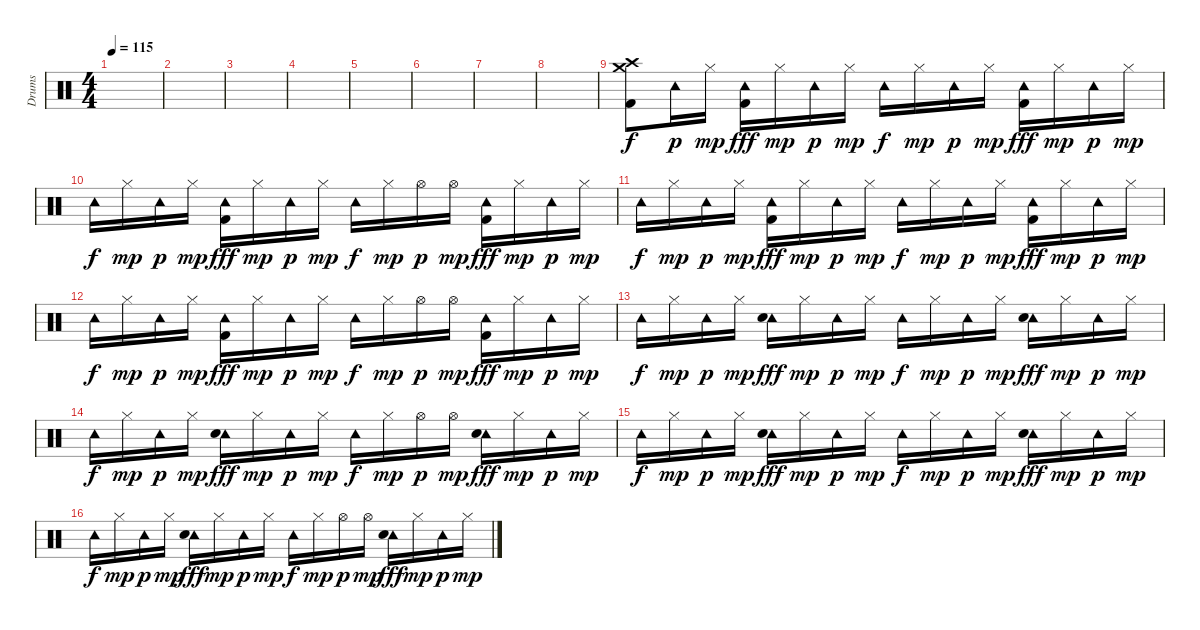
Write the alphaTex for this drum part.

\track ("Drums" "Drums") {instrument percussion}
\staff {score}
\articulation defaults
\ts (4 4)
\tempo 115
\clef neutral
\ks c
|
|
|
|
|
|
|
|
("Crash high (hit)" "Crash medium (hit)" "Kick (hit) 2").8 "Tambourine (hit)".16{dy p} "Hi-Hat (closed)".16{dy mp} ("Tambourine (hit)" "Kick (hit) 2").16{dy fff} "Hi-Hat (closed)".16{dy mp} "Tambourine (hit)".16{dy p} "Hi-Hat (closed)".16{dy mp} "Tambourine (hit)".16{dy f} "Hi-Hat (closed)".16{dy mp} "Tambourine (hit)".16{dy p} "Hi-Hat (closed)".16{dy mp} ("Tambourine (hit)" "Kick (hit) 2").16{dy fff} "Hi-Hat (closed)".16{dy mp} "Tambourine (hit)".16{dy p} "Hi-Hat (closed)".16{dy mp} |
"Tambourine (hit)".16{dy f} "Hi-Hat (closed)".16{dy mp} "Tambourine (hit)".16{dy p} "Hi-Hat (closed)".16{dy mp} ("Tambourine (hit)" "Kick (hit) 2").16{dy fff} "Hi-Hat (closed)".16{dy mp} "Tambourine (hit)".16{dy p} "Hi-Hat (closed)".16{dy mp} "Tambourine (hit)".16{dy f} "Hi-Hat (closed)".16{dy mp} "Hi-Hat (open)".16{dy p} "Hi-Hat (open)".16{dy mp} ("Tambourine (hit)" "Kick (hit) 2").16{dy fff} "Hi-Hat (closed)".16{dy mp} "Tambourine (hit)".16{dy p} "Hi-Hat (closed)".16{dy mp} |
"Tambourine (hit)".16{dy f} "Hi-Hat (closed)".16{dy mp} "Tambourine (hit)".16{dy p} "Hi-Hat (closed)".16{dy mp} ("Tambourine (hit)" "Kick (hit) 2").16{dy fff} "Hi-Hat (closed)".16{dy mp} "Tambourine (hit)".16{dy p} "Hi-Hat (closed)".16{dy mp} "Tambourine (hit)".16{dy f} "Hi-Hat (closed)".16{dy mp} "Tambourine (hit)".16{dy p} "Hi-Hat (closed)".16{dy mp} ("Tambourine (hit)" "Kick (hit) 2").16{dy fff} "Hi-Hat (closed)".16{dy mp} "Tambourine (hit)".16{dy p} "Hi-Hat (closed)".16{dy mp} |
"Tambourine (hit)".16{dy f} "Hi-Hat (closed)".16{dy mp} "Tambourine (hit)".16{dy p} "Hi-Hat (closed)".16{dy mp} ("Tambourine (hit)" "Kick (hit) 2").16{dy fff} "Hi-Hat (closed)".16{dy mp} "Tambourine (hit)".16{dy p} "Hi-Hat (closed)".16{dy mp} "Tambourine (hit)".16{dy f} "Hi-Hat (closed)".16{dy mp} "Hi-Hat (open)".16{dy p} "Hi-Hat (open)".16{dy mp} ("Tambourine (hit)" "Kick (hit) 2").16{dy fff} "Hi-Hat (closed)".16{dy mp} "Tambourine (hit)".16{dy p} "Hi-Hat (closed)".16{dy mp} |
"Tambourine (hit)".16{dy f} "Hi-Hat (closed)".16{dy mp} "Tambourine (hit)".16{dy p} "Hi-Hat (closed)".16{dy mp} ("Tambourine (hit)" "Electric Snare (hit)").16{dy fff} "Hi-Hat (closed)".16{dy mp} "Tambourine (hit)".16{dy p} "Hi-Hat (closed)".16{dy mp} "Tambourine (hit)".16{dy f} "Hi-Hat (closed)".16{dy mp} "Tambourine (hit)".16{dy p} "Hi-Hat (closed)".16{dy mp} ("Tambourine (hit)" "Electric Snare (hit)").16{dy fff} "Hi-Hat (closed)".16{dy mp} "Tambourine (hit)".16{dy p} "Hi-Hat (closed)".16{dy mp} |
"Tambourine (hit)".16{dy f} "Hi-Hat (closed)".16{dy mp} "Tambourine (hit)".16{dy p} "Hi-Hat (closed)".16{dy mp} ("Tambourine (hit)" "Electric Snare (hit)").16{dy fff} "Hi-Hat (closed)".16{dy mp} "Tambourine (hit)".16{dy p} "Hi-Hat (closed)".16{dy mp} "Tambourine (hit)".16{dy f} "Hi-Hat (closed)".16{dy mp} "Hi-Hat (open)".16{dy p} "Hi-Hat (open)".16{dy mp} ("Tambourine (hit)" "Electric Snare (hit)").16{dy fff} "Hi-Hat (closed)".16{dy mp} "Tambourine (hit)".16{dy p} "Hi-Hat (closed)".16{dy mp} |
"Tambourine (hit)".16{dy f} "Hi-Hat (closed)".16{dy mp} "Tambourine (hit)".16{dy p} "Hi-Hat (closed)".16{dy mp} ("Tambourine (hit)" "Electric Snare (hit)").16{dy fff} "Hi-Hat (closed)".16{dy mp} "Tambourine (hit)".16{dy p} "Hi-Hat (closed)".16{dy mp} "Tambourine (hit)".16{dy f} "Hi-Hat (closed)".16{dy mp} "Tambourine (hit)".16{dy p} "Hi-Hat (closed)".16{dy mp} ("Tambourine (hit)" "Electric Snare (hit)").16{dy fff} "Hi-Hat (closed)".16{dy mp} "Tambourine (hit)".16{dy p} "Hi-Hat (closed)".16{dy mp} |
"Tambourine (hit)".16{dy f} "Hi-Hat (closed)".16{dy mp} "Tambourine (hit)".16{dy p} "Hi-Hat (closed)".16{dy mp} ("Tambourine (hit)" "Electric Snare (hit)").16{dy fff} "Hi-Hat (closed)".16{dy mp} "Tambourine (hit)".16{dy p} "Hi-Hat (closed)".16{dy mp} "Tambourine (hit)".16{dy f} "Hi-Hat (closed)".16{dy mp} "Hi-Hat (open)".16{dy p} "Hi-Hat (open)".16{dy mp} ("Tambourine (hit)" "Electric Snare (hit)").16{dy fff} "Hi-Hat (closed)".16{dy mp} "Tambourine (hit)".16{dy p} "Hi-Hat (closed)".16{dy mp}
